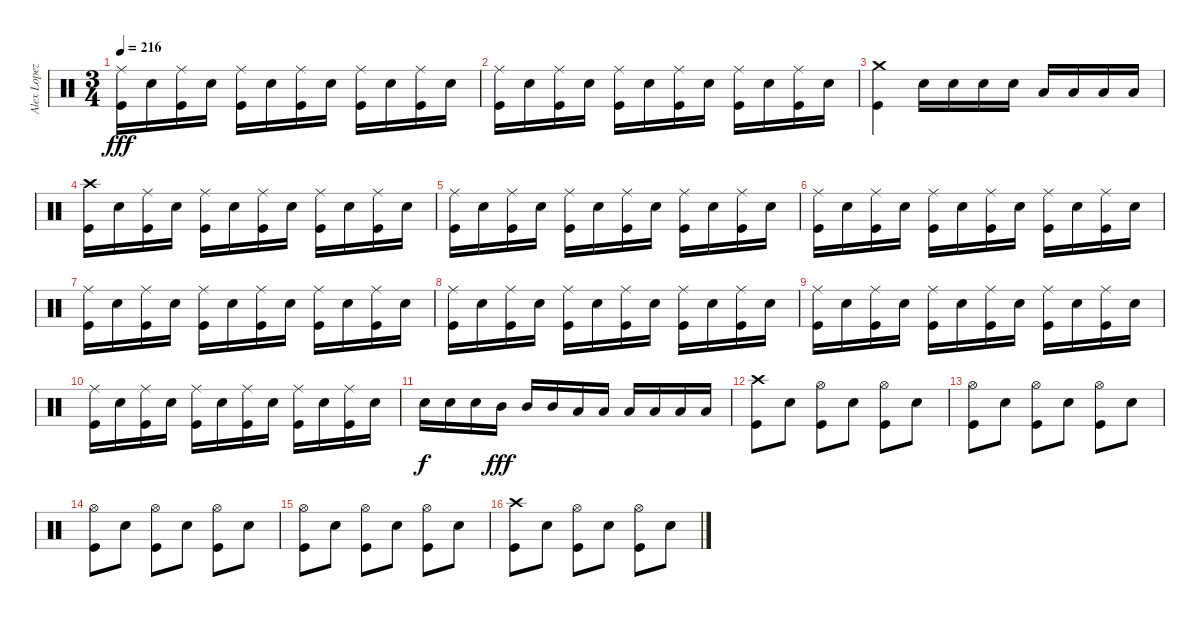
\track ("Alex Lopez" "Alex Lopez") {instrument percussion}
\staff {score}
\articulation defaults
\ts (3 4)
\tempo 216
\clef neutral
\ks c
("Ride (middle)" "Kick (hit)").16{dy fff} "Electric Snare (hit)".16 ("Ride (middle)" "Kick (hit)").16 "Electric Snare (hit)".16 ("Ride (middle)" "Kick (hit)").16 "Electric Snare (hit)".16 ("Ride (middle)" "Kick (hit)").16 "Electric Snare (hit)".16 ("Ride (middle)" "Kick (hit)").16 "Electric Snare (hit)".16 ("Ride (middle)" "Kick (hit)").16 "Electric Snare (hit)".16 |
("Ride (middle)" "Kick (hit)").16 "Electric Snare (hit)".16 ("Ride (middle)" "Kick (hit)").16 "Electric Snare (hit)".16 ("Ride (middle)" "Kick (hit)").16 "Electric Snare (hit)".16 ("Ride (middle)" "Kick (hit)").16 "Electric Snare (hit)".16 ("Ride (middle)" "Kick (hit)").16 "Electric Snare (hit)".16 ("Ride (middle)" "Kick (hit)").16 "Electric Snare (hit)".16 |
("Crash medium (hit)" "Kick (hit)").4 "Electric Snare (hit)".16 "Electric Snare (hit)".16 "Electric Snare (hit)".16 "Electric Snare (hit)".16 "Low Floor Tom (hit)".16 "Low Floor Tom (hit)".16 "Low Floor Tom (hit)".16 "Low Floor Tom (hit)".16 |
("Crash high (hit)" "Kick (hit)").16 "Electric Snare (hit)".16 ("Ride (middle)" "Kick (hit)").16 "Electric Snare (hit)".16 ("Ride (middle)" "Kick (hit)").16 "Electric Snare (hit)".16 ("Ride (middle)" "Kick (hit)").16 "Electric Snare (hit)".16 ("Ride (middle)" "Kick (hit)").16 "Electric Snare (hit)".16 ("Ride (middle)" "Kick (hit)").16 "Electric Snare (hit)".16 |
("Ride (middle)" "Kick (hit)").16 "Electric Snare (hit)".16 ("Ride (middle)" "Kick (hit)").16 "Electric Snare (hit)".16 ("Ride (middle)" "Kick (hit)").16 "Electric Snare (hit)".16 ("Ride (middle)" "Kick (hit)").16 "Electric Snare (hit)".16 ("Ride (middle)" "Kick (hit)").16 "Electric Snare (hit)".16 ("Ride (middle)" "Kick (hit)").16 "Electric Snare (hit)".16 |
("Ride (middle)" "Kick (hit)").16 "Electric Snare (hit)".16 ("Ride (middle)" "Kick (hit)").16 "Electric Snare (hit)".16 ("Ride (middle)" "Kick (hit)").16 "Electric Snare (hit)".16 ("Ride (middle)" "Kick (hit)").16 "Electric Snare (hit)".16 ("Ride (middle)" "Kick (hit)").16 "Electric Snare (hit)".16 ("Ride (middle)" "Kick (hit)").16 "Electric Snare (hit)".16 |
("Ride (middle)" "Kick (hit)").16 "Electric Snare (hit)".16 ("Ride (middle)" "Kick (hit)").16 "Electric Snare (hit)".16 ("Ride (middle)" "Kick (hit)").16 "Electric Snare (hit)".16 ("Ride (middle)" "Kick (hit)").16 "Electric Snare (hit)".16 ("Ride (middle)" "Kick (hit)").16 "Electric Snare (hit)".16 ("Ride (middle)" "Kick (hit)").16 "Electric Snare (hit)".16 |
("Ride (middle)" "Kick (hit)").16 "Electric Snare (hit)".16 ("Ride (middle)" "Kick (hit)").16 "Electric Snare (hit)".16 ("Ride (middle)" "Kick (hit)").16 "Electric Snare (hit)".16 ("Ride (middle)" "Kick (hit)").16 "Electric Snare (hit)".16 ("Ride (middle)" "Kick (hit)").16 "Electric Snare (hit)".16 ("Ride (middle)" "Kick (hit)").16 "Electric Snare (hit)".16 |
("Ride (middle)" "Kick (hit)").16 "Electric Snare (hit)".16 ("Ride (middle)" "Kick (hit)").16 "Electric Snare (hit)".16 ("Ride (middle)" "Kick (hit)").16 "Electric Snare (hit)".16 ("Ride (middle)" "Kick (hit)").16 "Electric Snare (hit)".16 ("Ride (middle)" "Kick (hit)").16 "Electric Snare (hit)".16 ("Ride (middle)" "Kick (hit)").16 "Electric Snare (hit)".16 |
("Ride (middle)" "Kick (hit)").16 "Electric Snare (hit)".16 ("Ride (middle)" "Kick (hit)").16 "Electric Snare (hit)".16 ("Ride (middle)" "Kick (hit)").16 "Electric Snare (hit)".16 ("Ride (middle)" "Kick (hit)").16 "Electric Snare (hit)".16 ("Ride (middle)" "Kick (hit)").16 "Electric Snare (hit)".16 ("Ride (middle)" "Kick (hit)").16 "Electric Snare (hit)".16 |
"Electric Snare (hit)".16{dy f} "Electric Snare (hit)".16 "Electric Snare (hit)".16 "Mid Tom (hit)".16{dy fff} "Mid Tom (hit)".16 "Mid Tom (hit)".16 "Low Tom (hit)".16 "Low Tom (hit)".16 "Low Tom (hit)".16 "Low Floor Tom (hit)".16 "Low Floor Tom (hit)".16 "Low Floor Tom (hit)".16 |
("Crash high (hit)" "Kick (hit)").8 "Electric Snare (hit)".8 ("Hi-Hat (open)" "Kick (hit)").8 "Electric Snare (hit)".8 ("Hi-Hat (open)" "Kick (hit)").8 "Electric Snare (hit)".8 |
("Hi-Hat (open)" "Kick (hit)").8 "Electric Snare (hit)".8 ("Hi-Hat (open)" "Kick (hit)").8 "Electric Snare (hit)".8 ("Hi-Hat (open)" "Kick (hit)").8 "Electric Snare (hit)".8 |
("Hi-Hat (open)" "Kick (hit)").8 "Electric Snare (hit)".8 ("Hi-Hat (open)" "Kick (hit)").8 "Electric Snare (hit)".8 ("Hi-Hat (open)" "Kick (hit)").8 "Electric Snare (hit)".8 |
("Hi-Hat (open)" "Kick (hit)").8 "Electric Snare (hit)".8 ("Hi-Hat (open)" "Kick (hit)").8 "Electric Snare (hit)".8 ("Hi-Hat (open)" "Kick (hit)").8 "Electric Snare (hit)".8 |
("Crash high (hit)" "Kick (hit)").8 "Electric Snare (hit)".8 ("Hi-Hat (open)" "Kick (hit)").8 "Electric Snare (hit)".8 ("Hi-Hat (open)" "Kick (hit)").8 "Electric Snare (hit)".8
